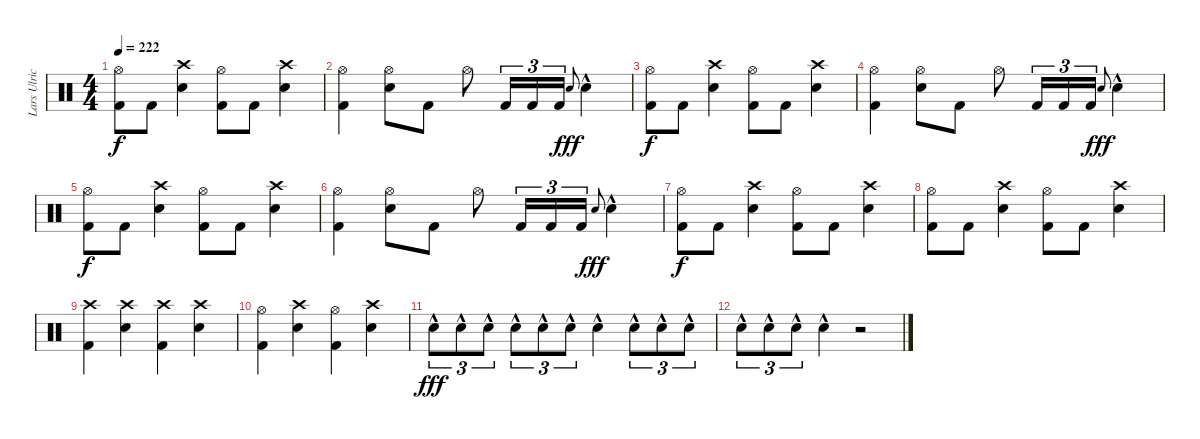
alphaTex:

\track ("Lars Ulrich" "Lars Ulric") {instrument percussion}
\staff {score}
\articulation defaults
\ts (4 4)
\tempo 222
\clef neutral
\ks c
("Hi-Hat (open)" "Kick (hit) 2").8{dy f} "Kick (hit) 2".8 ("Crash high (hit)" "Electric Snare (hit)").4 ("Hi-Hat (open)" "Kick (hit) 2").8 "Kick (hit) 2".8 ("Crash high (hit)" "Electric Snare (hit)").4 |
("Hi-Hat (open)" "Kick (hit) 2").4 ("Hi-Hat (open)" "Electric Snare (hit)").8 "Kick (hit) 2".8 "Hi-Hat (open)".8 "Kick (hit) 2".16{tu (3 2)} "Kick (hit) 2".16{tu (3 2)} "Kick (hit) 2".16{tu (3 2)} "Electric Snare (hit)".8{gr onbeat dy fff} "Electric Snare (hit)"{hac}.4 |
("Hi-Hat (open)" "Kick (hit) 2").8{dy f} "Kick (hit) 2".8 ("Crash high (hit)" "Electric Snare (hit)").4 ("Hi-Hat (open)" "Kick (hit) 2").8 "Kick (hit) 2".8 ("Crash high (hit)" "Electric Snare (hit)").4 |
("Hi-Hat (open)" "Kick (hit) 2").4 ("Hi-Hat (open)" "Electric Snare (hit)").8 "Kick (hit) 2".8 "Hi-Hat (open)".8 "Kick (hit) 2".16{tu (3 2)} "Kick (hit) 2".16{tu (3 2)} "Kick (hit) 2".16{tu (3 2)} "Electric Snare (hit)".8{gr onbeat dy fff} "Electric Snare (hit)"{hac}.4 |
("Hi-Hat (open)" "Kick (hit) 2").8{dy f} "Kick (hit) 2".8 ("Crash high (hit)" "Electric Snare (hit)").4 ("Hi-Hat (open)" "Kick (hit) 2").8 "Kick (hit) 2".8 ("Crash high (hit)" "Electric Snare (hit)").4 |
("Hi-Hat (open)" "Kick (hit) 2").4 ("Hi-Hat (open)" "Electric Snare (hit)").8 "Kick (hit) 2".8 "Hi-Hat (open)".8 "Kick (hit) 2".16{tu (3 2)} "Kick (hit) 2".16{tu (3 2)} "Kick (hit) 2".16{tu (3 2)} "Electric Snare (hit)".8{gr onbeat dy fff} "Electric Snare (hit)"{hac}.4 |
("Hi-Hat (open)" "Kick (hit) 2").8{dy f} "Kick (hit) 2".8 ("Crash high (hit)" "Electric Snare (hit)").4 ("Hi-Hat (open)" "Kick (hit) 2").8 "Kick (hit) 2".8 ("Crash high (hit)" "Electric Snare (hit)").4 |
("Hi-Hat (open)" "Kick (hit) 2").8 "Kick (hit) 2".8 ("Crash high (hit)" "Electric Snare (hit)").4 ("Hi-Hat (open)" "Kick (hit) 2").8 "Kick (hit) 2".8 ("Crash high (hit)" "Electric Snare (hit)").4 |
("Crash high (hit)" "Kick (hit) 2").4 ("Crash high (hit)" "Electric Snare (hit)").4 ("Crash high (hit)" "Kick (hit) 2").4 ("Crash high (hit)" "Electric Snare (hit)").4 |
("Hi-Hat (open)" "Kick (hit) 2").4 ("Crash high (hit)" "Electric Snare (hit)").4 ("Hi-Hat (open)" "Kick (hit) 2").4 ("Crash high (hit)" "Electric Snare (hit)").4 |
"Electric Snare (hit)"{hac}.8{tu (3 2) dy fff} "Electric Snare (hit)"{hac}.8{tu (3 2)} "Electric Snare (hit)"{hac}.8{tu (3 2)} "Electric Snare (hit)"{hac}.8{tu (3 2)} "Electric Snare (hit)"{hac}.8{tu (3 2)} "Electric Snare (hit)"{hac}.8{tu (3 2)} "Electric Snare (hit)"{hac}.4 "Electric Snare (hit)"{hac}.8{tu (3 2)} "Electric Snare (hit)"{hac}.8{tu (3 2)} "Electric Snare (hit)"{hac}.8{tu (3 2)} |
"Electric Snare (hit)"{hac}.8{tu (3 2)} "Electric Snare (hit)"{hac}.8{tu (3 2)} "Electric Snare (hit)"{hac}.8{tu (3 2)} "Electric Snare (hit)"{hac}.4 r.2
